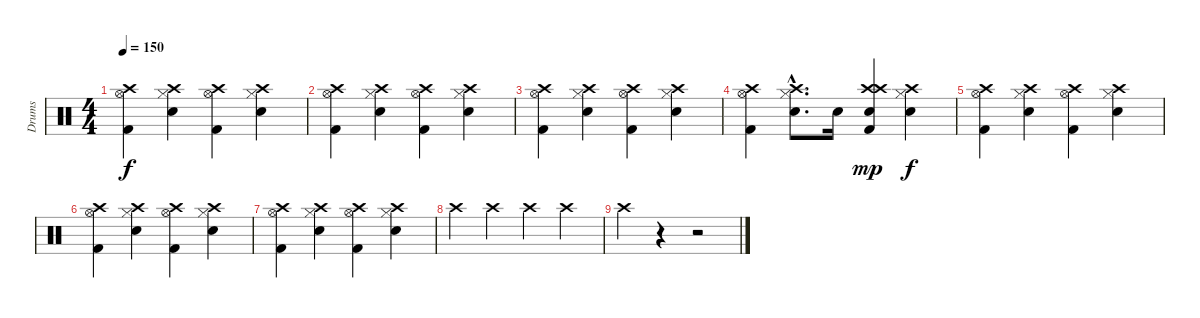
\track ("Drums" "Drums") {instrument percussion}
\staff {score}
\articulation defaults
\ts (4 4)
\tempo 150
\clef neutral
\ks c
("Kick (hit) 2" "Crash high (hit)" "Hi-Hat (open)").4{dy f} ("Electric Snare (hit)" "Crash high (hit)" "Hi-Hat (closed)").4 ("Kick (hit) 2" "Crash high (hit)" "Hi-Hat (open)").4 ("Electric Snare (hit)" "Crash high (hit)" "Hi-Hat (closed)").4 |
("Kick (hit) 2" "Crash high (hit)" "Hi-Hat (open)").4 ("Electric Snare (hit)" "Crash high (hit)" "Hi-Hat (closed)").4 ("Kick (hit) 2" "Crash high (hit)" "Hi-Hat (open)").4 ("Electric Snare (hit)" "Crash high (hit)" "Hi-Hat (closed)").4 |
("Kick (hit) 2" "Crash high (hit)" "Hi-Hat (open)").4 ("Electric Snare (hit)" "Crash high (hit)" "Hi-Hat (closed)").4 ("Kick (hit) 2" "Crash high (hit)" "Hi-Hat (open)").4 ("Electric Snare (hit)" "Crash high (hit)" "Hi-Hat (closed)").4 |
("Kick (hit) 2" "Crash high (hit)" "Hi-Hat (open)").4 ("Electric Snare (hit)"{hac} "Crash high (hit)"{hac} "Hi-Hat (closed)"{hac}).8{d} "Electric Snare (hit)".16 ("Electric Snare (hit)" "Kick (hit) 2" "Crash high (hit)" "Crash high (hit)").4{dy mp} ("Electric Snare (hit)" "Crash high (hit)" "Hi-Hat (closed)").4{dy f} |
("Kick (hit) 2" "Crash high (hit)" "Hi-Hat (open)").4 ("Electric Snare (hit)" "Crash high (hit)" "Hi-Hat (closed)").4 ("Kick (hit) 2" "Crash high (hit)" "Hi-Hat (open)").4 ("Electric Snare (hit)" "Crash high (hit)" "Hi-Hat (closed)").4 |
("Kick (hit) 2" "Crash high (hit)" "Hi-Hat (open)").4 ("Electric Snare (hit)" "Crash high (hit)" "Hi-Hat (closed)").4 ("Kick (hit) 2" "Crash high (hit)" "Hi-Hat (open)").4 ("Electric Snare (hit)" "Crash high (hit)" "Hi-Hat (closed)").4 |
("Kick (hit) 2" "Crash high (hit)" "Hi-Hat (open)").4 ("Electric Snare (hit)" "Crash high (hit)" "Hi-Hat (closed)").4 ("Kick (hit) 2" "Crash high (hit)" "Hi-Hat (open)").4 ("Electric Snare (hit)" "Crash high (hit)" "Hi-Hat (closed)").4 |
"Crash high (hit)".4 "Crash high (hit)".4 "Crash high (hit)".4 "Crash high (hit)".4 |
"Crash high (hit)".4 r.4 r.2
